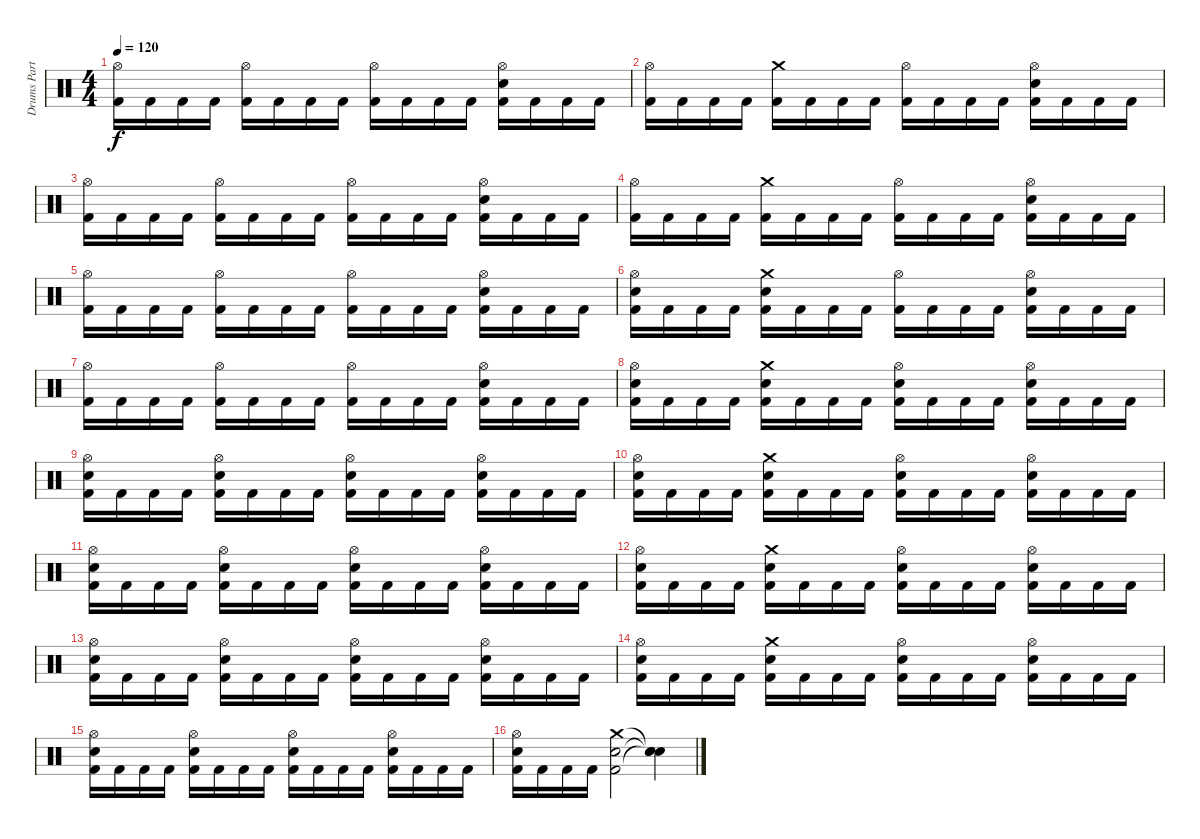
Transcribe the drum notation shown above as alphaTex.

\track ("Drums Part" "Drums Part") {instrument percussion}
\staff {score}
\articulation defaults
\ts (4 4)
\tempo 120
\clef neutral
\ks c
("Hi-Hat (open)" "Kick (hit) 2").16{dy f} "Kick (hit) 2".16 "Kick (hit) 2".16 "Kick (hit) 2".16 ("Hi-Hat (open)" "Kick (hit) 2").16 "Kick (hit) 2".16 "Kick (hit) 2".16 "Kick (hit) 2".16 ("Hi-Hat (open)" "Kick (hit) 2").16 "Kick (hit) 2".16 "Kick (hit) 2".16 "Kick (hit) 2".16 ("Hi-Hat (open)" "Electric Snare (hit)" "Kick (hit) 2").16 "Kick (hit) 2".16 "Kick (hit) 2".16 "Kick (hit) 2".16 |
("Hi-Hat (open)" "Kick (hit) 2").16 "Kick (hit) 2".16 "Kick (hit) 2".16 "Kick (hit) 2".16 ("Crash medium (hit)" "Kick (hit) 2").16 "Kick (hit) 2".16 "Kick (hit) 2".16 "Kick (hit) 2".16 ("Hi-Hat (open)" "Kick (hit) 2").16 "Kick (hit) 2".16 "Kick (hit) 2".16 "Kick (hit) 2".16 ("Hi-Hat (open)" "Electric Snare (hit)" "Kick (hit) 2").16 "Kick (hit) 2".16 "Kick (hit) 2".16 "Kick (hit) 2".16 |
("Hi-Hat (open)" "Kick (hit) 2").16 "Kick (hit) 2".16 "Kick (hit) 2".16 "Kick (hit) 2".16 ("Hi-Hat (open)" "Kick (hit) 2").16 "Kick (hit) 2".16 "Kick (hit) 2".16 "Kick (hit) 2".16 ("Hi-Hat (open)" "Kick (hit) 2").16 "Kick (hit) 2".16 "Kick (hit) 2".16 "Kick (hit) 2".16 ("Hi-Hat (open)" "Electric Snare (hit)" "Kick (hit) 2").16 "Kick (hit) 2".16 "Kick (hit) 2".16 "Kick (hit) 2".16 |
("Hi-Hat (open)" "Kick (hit) 2").16 "Kick (hit) 2".16 "Kick (hit) 2".16 "Kick (hit) 2".16 ("Crash medium (hit)" "Kick (hit) 2").16 "Kick (hit) 2".16 "Kick (hit) 2".16 "Kick (hit) 2".16 ("Hi-Hat (open)" "Kick (hit) 2").16 "Kick (hit) 2".16 "Kick (hit) 2".16 "Kick (hit) 2".16 ("Hi-Hat (open)" "Electric Snare (hit)" "Kick (hit) 2").16 "Kick (hit) 2".16 "Kick (hit) 2".16 "Kick (hit) 2".16 |
("Hi-Hat (open)" "Kick (hit) 2").16 "Kick (hit) 2".16 "Kick (hit) 2".16 "Kick (hit) 2".16 ("Hi-Hat (open)" "Kick (hit) 2").16 "Kick (hit) 2".16 "Kick (hit) 2".16 "Kick (hit) 2".16 ("Hi-Hat (open)" "Kick (hit) 2").16 "Kick (hit) 2".16 "Kick (hit) 2".16 "Kick (hit) 2".16 ("Hi-Hat (open)" "Electric Snare (hit)" "Kick (hit) 2").16 "Kick (hit) 2".16 "Kick (hit) 2".16 "Kick (hit) 2".16 |
("Hi-Hat (open)" "Electric Snare (hit)" "Kick (hit) 2").16 "Kick (hit) 2".16 "Kick (hit) 2".16 "Kick (hit) 2".16 ("Crash medium (hit)" "Electric Snare (hit)" "Kick (hit) 2").16 "Kick (hit) 2".16 "Kick (hit) 2".16 "Kick (hit) 2".16 ("Hi-Hat (open)" "Kick (hit) 2").16 "Kick (hit) 2".16 "Kick (hit) 2".16 "Kick (hit) 2".16 ("Hi-Hat (open)" "Electric Snare (hit)" "Kick (hit) 2").16 "Kick (hit) 2".16 "Kick (hit) 2".16 "Kick (hit) 2".16 |
("Hi-Hat (open)" "Kick (hit) 2").16 "Kick (hit) 2".16 "Kick (hit) 2".16 "Kick (hit) 2".16 ("Hi-Hat (open)" "Kick (hit) 2").16 "Kick (hit) 2".16 "Kick (hit) 2".16 "Kick (hit) 2".16 ("Hi-Hat (open)" "Kick (hit) 2").16 "Kick (hit) 2".16 "Kick (hit) 2".16 "Kick (hit) 2".16 ("Hi-Hat (open)" "Electric Snare (hit)" "Kick (hit) 2").16 "Kick (hit) 2".16 "Kick (hit) 2".16 "Kick (hit) 2".16 |
("Hi-Hat (open)" "Electric Snare (hit)" "Kick (hit) 2").16 "Kick (hit) 2".16 "Kick (hit) 2".16 "Kick (hit) 2".16 ("Crash medium (hit)" "Electric Snare (hit)" "Kick (hit) 2").16 "Kick (hit) 2".16 "Kick (hit) 2".16 "Kick (hit) 2".16 ("Hi-Hat (open)" "Electric Snare (hit)" "Kick (hit) 2").16 "Kick (hit) 2".16 "Kick (hit) 2".16 "Kick (hit) 2".16 ("Hi-Hat (open)" "Electric Snare (hit)" "Kick (hit) 2").16 "Kick (hit) 2".16 "Kick (hit) 2".16 "Kick (hit) 2".16 |
("Hi-Hat (open)" "Electric Snare (hit)" "Kick (hit) 2").16 "Kick (hit) 2".16 "Kick (hit) 2".16 "Kick (hit) 2".16 ("Hi-Hat (open)" "Electric Snare (hit)" "Kick (hit) 2").16 "Kick (hit) 2".16 "Kick (hit) 2".16 "Kick (hit) 2".16 ("Hi-Hat (open)" "Electric Snare (hit)" "Kick (hit) 2").16 "Kick (hit) 2".16 "Kick (hit) 2".16 "Kick (hit) 2".16 ("Hi-Hat (open)" "Electric Snare (hit)" "Kick (hit) 2").16 "Kick (hit) 2".16 "Kick (hit) 2".16 "Kick (hit) 2".16 |
("Hi-Hat (open)" "Electric Snare (hit)" "Kick (hit) 2").16 "Kick (hit) 2".16 "Kick (hit) 2".16 "Kick (hit) 2".16 ("Crash medium (hit)" "Electric Snare (hit)" "Kick (hit) 2").16 "Kick (hit) 2".16 "Kick (hit) 2".16 "Kick (hit) 2".16 ("Hi-Hat (open)" "Electric Snare (hit)" "Kick (hit) 2").16 "Kick (hit) 2".16 "Kick (hit) 2".16 "Kick (hit) 2".16 ("Hi-Hat (open)" "Electric Snare (hit)" "Kick (hit) 2").16 "Kick (hit) 2".16 "Kick (hit) 2".16 "Kick (hit) 2".16 |
("Hi-Hat (open)" "Electric Snare (hit)" "Kick (hit) 2").16 "Kick (hit) 2".16 "Kick (hit) 2".16 "Kick (hit) 2".16 ("Hi-Hat (open)" "Electric Snare (hit)" "Kick (hit) 2").16 "Kick (hit) 2".16 "Kick (hit) 2".16 "Kick (hit) 2".16 ("Hi-Hat (open)" "Electric Snare (hit)" "Kick (hit) 2").16 "Kick (hit) 2".16 "Kick (hit) 2".16 "Kick (hit) 2".16 ("Hi-Hat (open)" "Electric Snare (hit)" "Kick (hit) 2").16 "Kick (hit) 2".16 "Kick (hit) 2".16 "Kick (hit) 2".16 |
("Hi-Hat (open)" "Electric Snare (hit)" "Kick (hit) 2").16 "Kick (hit) 2".16 "Kick (hit) 2".16 "Kick (hit) 2".16 ("Crash medium (hit)" "Electric Snare (hit)" "Kick (hit) 2").16 "Kick (hit) 2".16 "Kick (hit) 2".16 "Kick (hit) 2".16 ("Hi-Hat (open)" "Electric Snare (hit)" "Kick (hit) 2").16 "Kick (hit) 2".16 "Kick (hit) 2".16 "Kick (hit) 2".16 ("Hi-Hat (open)" "Electric Snare (hit)" "Kick (hit) 2").16 "Kick (hit) 2".16 "Kick (hit) 2".16 "Kick (hit) 2".16 |
("Hi-Hat (open)" "Electric Snare (hit)" "Kick (hit) 2").16 "Kick (hit) 2".16 "Kick (hit) 2".16 "Kick (hit) 2".16 ("Hi-Hat (open)" "Electric Snare (hit)" "Kick (hit) 2").16 "Kick (hit) 2".16 "Kick (hit) 2".16 "Kick (hit) 2".16 ("Hi-Hat (open)" "Electric Snare (hit)" "Kick (hit) 2").16 "Kick (hit) 2".16 "Kick (hit) 2".16 "Kick (hit) 2".16 ("Hi-Hat (open)" "Electric Snare (hit)" "Kick (hit) 2").16 "Kick (hit) 2".16 "Kick (hit) 2".16 "Kick (hit) 2".16 |
("Hi-Hat (open)" "Electric Snare (hit)" "Kick (hit) 2").16 "Kick (hit) 2".16 "Kick (hit) 2".16 "Kick (hit) 2".16 ("Crash medium (hit)" "Electric Snare (hit)" "Kick (hit) 2").16 "Kick (hit) 2".16 "Kick (hit) 2".16 "Kick (hit) 2".16 ("Hi-Hat (open)" "Electric Snare (hit)" "Kick (hit) 2").16 "Kick (hit) 2".16 "Kick (hit) 2".16 "Kick (hit) 2".16 ("Hi-Hat (open)" "Electric Snare (hit)" "Kick (hit) 2").16 "Kick (hit) 2".16 "Kick (hit) 2".16 "Kick (hit) 2".16 |
("Hi-Hat (open)" "Electric Snare (hit)" "Kick (hit) 2").16 "Kick (hit) 2".16 "Kick (hit) 2".16 "Kick (hit) 2".16 ("Hi-Hat (open)" "Electric Snare (hit)" "Kick (hit) 2").16 "Kick (hit) 2".16 "Kick (hit) 2".16 "Kick (hit) 2".16 ("Hi-Hat (open)" "Electric Snare (hit)" "Kick (hit) 2").16 "Kick (hit) 2".16 "Kick (hit) 2".16 "Kick (hit) 2".16 ("Hi-Hat (open)" "Electric Snare (hit)" "Kick (hit) 2").16 "Kick (hit) 2".16 "Kick (hit) 2".16 "Kick (hit) 2".16 |
("Hi-Hat (open)" "Electric Snare (hit)" "Kick (hit) 2").16 "Kick (hit) 2".16 "Kick (hit) 2".16 "Kick (hit) 2".16 ("Crash medium (hit)" "Electric Snare (hit)" "Kick (hit) 2").2 ("Snare (hit)"{t} "Snare (hit)"{t} "Snare (hit)"{t}).4
